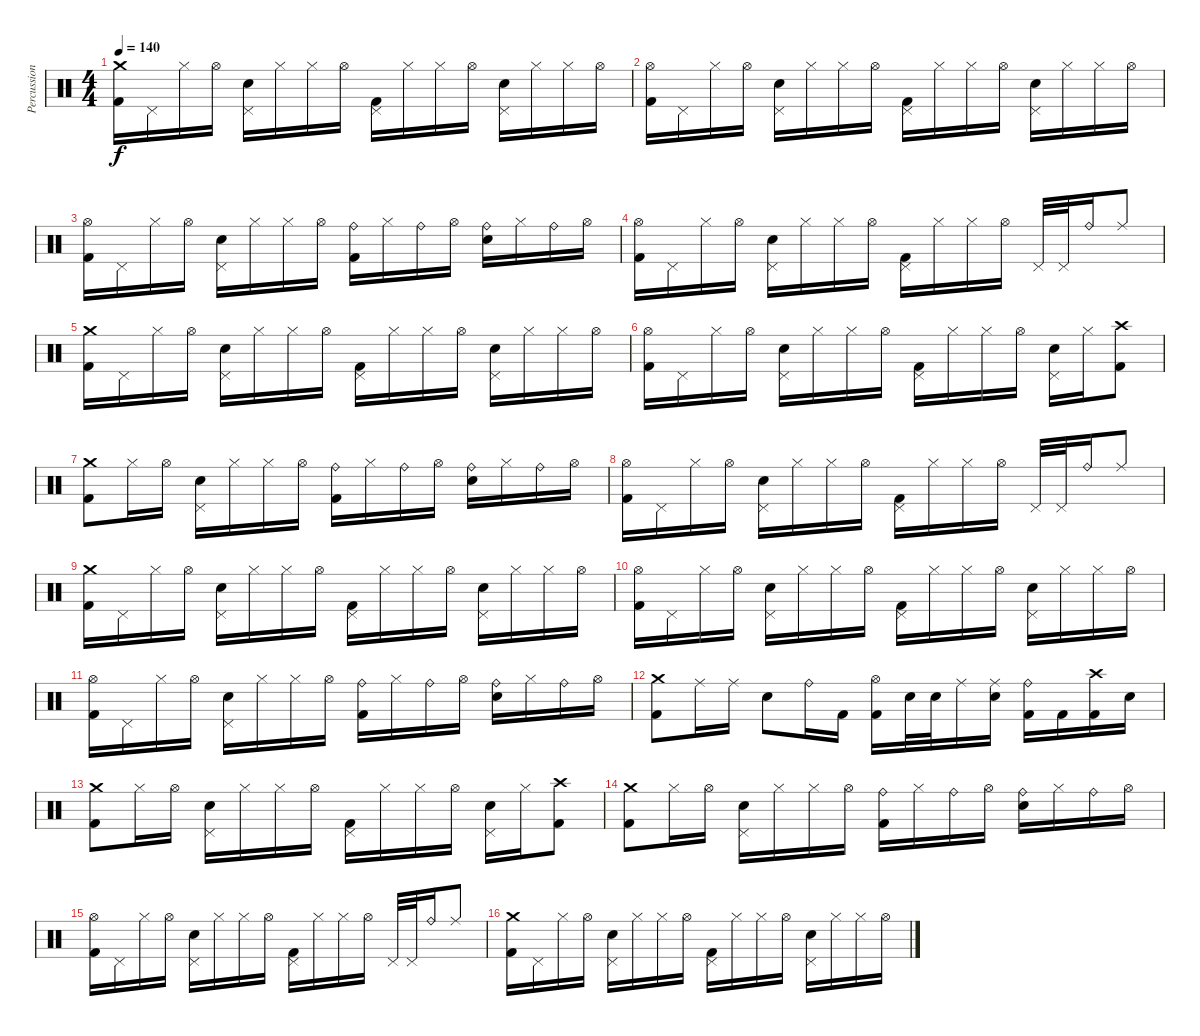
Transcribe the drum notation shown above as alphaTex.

\track ("Percussion" "Percussion") {instrument percussion}
\staff {score}
\articulation defaults
\ts (4 4)
\tempo 140
\clef neutral
\ks c
("Crash medium (hit)" "Kick (hit) 2").16{dy f} "Pedal Hi-Hat (hit)".16 "Hi-Hat (closed)".16 "Hi-Hat (open)".16 ("Pedal Hi-Hat (hit)" "Electric Snare (hit)").16 "Hi-Hat (closed)".16 "Hi-Hat (closed)".16 "Hi-Hat (open)".16 ("Pedal Hi-Hat (hit)" "Kick (hit) 2").16 "Hi-Hat (closed)".16 "Hi-Hat (closed)".16 "Hi-Hat (open)".16 ("Pedal Hi-Hat (hit)" "Electric Snare (hit)").16 "Hi-Hat (closed)".16 "Hi-Hat (closed)".16 "Hi-Hat (open)".16 |
("Hi-Hat (open)" "Kick (hit) 2").16 "Pedal Hi-Hat (hit)".16 "Hi-Hat (closed)".16 "Hi-Hat (open)".16 ("Pedal Hi-Hat (hit)" "Electric Snare (hit)").16 "Hi-Hat (closed)".16 "Hi-Hat (closed)".16 "Hi-Hat (open)".16 ("Pedal Hi-Hat (hit)" "Kick (hit) 2").16 "Hi-Hat (closed)".16 "Hi-Hat (closed)".16 "Hi-Hat (open)".16 ("Pedal Hi-Hat (hit)" "Electric Snare (hit)").16 "Hi-Hat (closed)".16 "Hi-Hat (closed)".16 "Hi-Hat (open)".16 |
("Hi-Hat (open)" "Kick (hit) 2").16 "Pedal Hi-Hat (hit)".16 "Hi-Hat (closed)".16 "Hi-Hat (open)".16 ("Pedal Hi-Hat (hit)" "Electric Snare (hit)").16 "Hi-Hat (closed)".16 "Hi-Hat (closed)".16 "Hi-Hat (open)".16 ("Ride (bell)" "Kick (hit) 2").16 "Hi-Hat (closed)".16 "Ride (bell)".16 "Hi-Hat (open)".16 ("Ride (bell)" "Electric Snare (hit)").16 "Hi-Hat (closed)".16 "Ride (bell)".16 "Hi-Hat (open)".16 |
("Hi-Hat (open)" "Kick (hit) 2").16 "Pedal Hi-Hat (hit)".16 "Hi-Hat (closed)".16 "Hi-Hat (open)".16 ("Pedal Hi-Hat (hit)" "Electric Snare (hit)").16 "Hi-Hat (closed)".16 "Hi-Hat (closed)".16 "Hi-Hat (open)".16 ("Pedal Hi-Hat (hit)" "Kick (hit) 2").16 "Hi-Hat (closed)".16 "Hi-Hat (closed)".16 "Hi-Hat (open)".16 "Pedal Hi-Hat (hit)".32 "Pedal Hi-Hat (hit)".32 "Ride (bell)".16 "Ride (middle)".8 |
("Crash medium (hit)" "Kick (hit) 2").16 "Pedal Hi-Hat (hit)".16 "Hi-Hat (closed)".16 "Hi-Hat (open)".16 ("Pedal Hi-Hat (hit)" "Electric Snare (hit)").16 "Hi-Hat (closed)".16 "Hi-Hat (closed)".16 "Hi-Hat (open)".16 ("Pedal Hi-Hat (hit)" "Kick (hit) 2").16 "Hi-Hat (closed)".16 "Hi-Hat (closed)".16 "Hi-Hat (open)".16 ("Pedal Hi-Hat (hit)" "Electric Snare (hit)").16 "Hi-Hat (closed)".16 "Hi-Hat (closed)".16 "Hi-Hat (open)".16 |
("Hi-Hat (open)" "Kick (hit) 2").16 "Pedal Hi-Hat (hit)".16 "Hi-Hat (closed)".16 "Hi-Hat (open)".16 ("Pedal Hi-Hat (hit)" "Electric Snare (hit)").16 "Hi-Hat (closed)".16 "Hi-Hat (closed)".16 "Hi-Hat (open)".16 ("Pedal Hi-Hat (hit)" "Kick (hit) 2").16 "Hi-Hat (closed)".16 "Hi-Hat (closed)".16 "Hi-Hat (open)".16 ("Pedal Hi-Hat (hit)" "Electric Snare (hit)").16 "Hi-Hat (closed)".16 ("Crash high (hit)" "Kick (hit) 2").8 |
("Crash medium (hit)" "Kick (hit) 2").8 "Hi-Hat (closed)".16 "Hi-Hat (open)".16 ("Pedal Hi-Hat (hit)" "Electric Snare (hit)").16 "Hi-Hat (closed)".16 "Hi-Hat (closed)".16 "Hi-Hat (open)".16 ("Ride (bell)" "Kick (hit) 2").16 "Hi-Hat (closed)".16 "Ride (bell)".16 "Hi-Hat (open)".16 ("Ride (bell)" "Electric Snare (hit)").16 "Hi-Hat (closed)".16 "Ride (bell)".16 "Hi-Hat (open)".16 |
("Hi-Hat (open)" "Kick (hit) 2").16 "Pedal Hi-Hat (hit)".16 "Hi-Hat (closed)".16 "Hi-Hat (open)".16 ("Pedal Hi-Hat (hit)" "Electric Snare (hit)").16 "Hi-Hat (closed)".16 "Hi-Hat (closed)".16 "Hi-Hat (open)".16 ("Pedal Hi-Hat (hit)" "Kick (hit) 2").16 "Hi-Hat (closed)".16 "Hi-Hat (closed)".16 "Hi-Hat (open)".16 "Pedal Hi-Hat (hit)".32 "Pedal Hi-Hat (hit)".32 "Ride (bell)".16 "Ride (middle)".8 |
("Crash medium (hit)" "Kick (hit) 2").16 "Pedal Hi-Hat (hit)".16 "Hi-Hat (closed)".16 "Hi-Hat (open)".16 ("Pedal Hi-Hat (hit)" "Electric Snare (hit)").16 "Hi-Hat (closed)".16 "Hi-Hat (closed)".16 "Hi-Hat (open)".16 ("Pedal Hi-Hat (hit)" "Kick (hit) 2").16 "Hi-Hat (closed)".16 "Hi-Hat (closed)".16 "Hi-Hat (open)".16 ("Pedal Hi-Hat (hit)" "Electric Snare (hit)").16 "Hi-Hat (closed)".16 "Hi-Hat (closed)".16 "Hi-Hat (open)".16 |
("Hi-Hat (open)" "Kick (hit) 2").16 "Pedal Hi-Hat (hit)".16 "Hi-Hat (closed)".16 "Hi-Hat (open)".16 ("Pedal Hi-Hat (hit)" "Electric Snare (hit)").16 "Hi-Hat (closed)".16 "Hi-Hat (closed)".16 "Hi-Hat (open)".16 ("Pedal Hi-Hat (hit)" "Kick (hit) 2").16 "Hi-Hat (closed)".16 "Hi-Hat (closed)".16 "Hi-Hat (open)".16 ("Pedal Hi-Hat (hit)" "Electric Snare (hit)").16 "Hi-Hat (closed)".16 "Hi-Hat (closed)".16 "Hi-Hat (open)".16 |
("Hi-Hat (open)" "Kick (hit) 2").16 "Pedal Hi-Hat (hit)".16 "Hi-Hat (closed)".16 "Hi-Hat (open)".16 ("Pedal Hi-Hat (hit)" "Electric Snare (hit)").16 "Hi-Hat (closed)".16 "Hi-Hat (closed)".16 "Hi-Hat (open)".16 ("Ride (bell)" "Kick (hit) 2").16 "Hi-Hat (closed)".16 "Ride (bell)".16 "Hi-Hat (open)".16 ("Ride (bell)" "Electric Snare (hit)").16 "Hi-Hat (closed)".16 "Ride (bell)".16 "Hi-Hat (open)".16 |
("Crash medium (hit)" "Kick (hit) 2").8 "Ride (middle)".16 "Ride (middle)".16 "Electric Snare (hit)".8 "Ride (bell)".16 "Kick (hit) 2".16 ("Hi-Hat (open)" "Kick (hit) 2").16 "Electric Snare (hit)".32 "Electric Snare (hit)".32 "Ride (middle)".16 ("Ride (middle)" "Electric Snare (hit)").16 ("Ride (bell)" "Kick (hit) 2").16 "Kick (hit) 2".16 ("Crash high (hit)" "Kick (hit) 2").16 "Electric Snare (hit)".16 |
("Crash medium (hit)" "Kick (hit) 2").8 "Hi-Hat (closed)".16 "Hi-Hat (open)".16 ("Pedal Hi-Hat (hit)" "Electric Snare (hit)").16 "Hi-Hat (closed)".16 "Hi-Hat (closed)".16 "Hi-Hat (open)".16 ("Pedal Hi-Hat (hit)" "Kick (hit) 2").16 "Hi-Hat (closed)".16 "Hi-Hat (closed)".16 "Hi-Hat (open)".16 ("Pedal Hi-Hat (hit)" "Electric Snare (hit)").16 "Hi-Hat (closed)".16 ("Crash high (hit)" "Kick (hit) 2").8 |
("Crash medium (hit)" "Kick (hit) 2").8 "Hi-Hat (closed)".16 "Hi-Hat (open)".16 ("Pedal Hi-Hat (hit)" "Electric Snare (hit)").16 "Hi-Hat (closed)".16 "Hi-Hat (closed)".16 "Hi-Hat (open)".16 ("Ride (bell)" "Kick (hit) 2").16 "Hi-Hat (closed)".16 "Ride (bell)".16 "Hi-Hat (open)".16 ("Ride (bell)" "Electric Snare (hit)").16 "Hi-Hat (closed)".16 "Ride (bell)".16 "Hi-Hat (open)".16 |
("Hi-Hat (open)" "Kick (hit) 2").16 "Pedal Hi-Hat (hit)".16 "Hi-Hat (closed)".16 "Hi-Hat (open)".16 ("Pedal Hi-Hat (hit)" "Electric Snare (hit)").16 "Hi-Hat (closed)".16 "Hi-Hat (closed)".16 "Hi-Hat (open)".16 ("Pedal Hi-Hat (hit)" "Kick (hit) 2").16 "Hi-Hat (closed)".16 "Hi-Hat (closed)".16 "Hi-Hat (open)".16 "Pedal Hi-Hat (hit)".32 "Pedal Hi-Hat (hit)".32 "Ride (bell)".16 "Ride (middle)".8 |
("Crash medium (hit)" "Kick (hit) 2").16 "Pedal Hi-Hat (hit)".16 "Hi-Hat (closed)".16 "Hi-Hat (open)".16 ("Pedal Hi-Hat (hit)" "Electric Snare (hit)").16 "Hi-Hat (closed)".16 "Hi-Hat (closed)".16 "Hi-Hat (open)".16 ("Pedal Hi-Hat (hit)" "Kick (hit) 2").16 "Hi-Hat (closed)".16 "Hi-Hat (closed)".16 "Hi-Hat (open)".16 ("Pedal Hi-Hat (hit)" "Electric Snare (hit)").16 "Hi-Hat (closed)".16 "Hi-Hat (closed)".16 "Hi-Hat (open)".16
